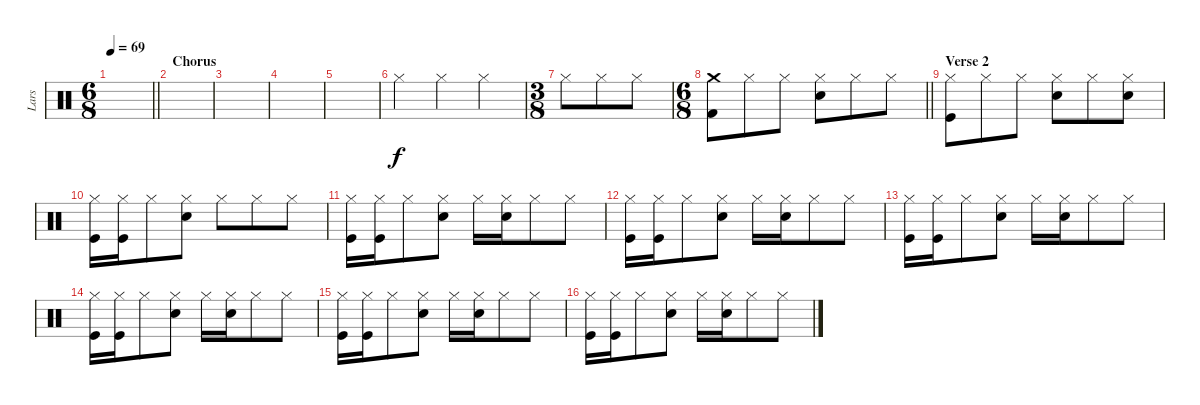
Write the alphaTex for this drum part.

\track ("Lars" "Lars") {instrument percussion}
\staff {score}
\articulation defaults
\ts (6 8)
\tempo 69
\clef neutral
\barLineRight lightlight
\ks c
|
\section ("" "Chorus")
|
|
|
|
"Hi-Hat (closed)".4 "Hi-Hat (closed)".4 "Hi-Hat (closed)".4 |
\ts (3 8)
"Hi-Hat (closed)".8 "Hi-Hat (closed)".8 "Hi-Hat (closed)".8 |
\ts (6 8)
\barLineRight lightlight
("Crash medium (hit)" "Kick (hit) 2").8 "Hi-Hat (closed)".8 "Hi-Hat (closed)".8 ("Hi-Hat (closed)" "Snare (hit) 2").8 "Hi-Hat (closed)".8 "Hi-Hat (closed)".8 |
\section ("" "Verse 2")
("Hi-Hat (closed)" "Kick (hit)").8 "Hi-Hat (closed)".8 "Hi-Hat (closed)".8 ("Hi-Hat (closed)" "Snare (hit) 2").8 "Hi-Hat (closed)".8 ("Hi-Hat (closed)" "Snare (hit) 2").8 |
("Hi-Hat (closed)" "Kick (hit)").16 ("Hi-Hat (closed)" "Kick (hit)").16 "Hi-Hat (closed)".8 ("Hi-Hat (closed)" "Snare (hit) 2").8 "Hi-Hat (closed)".8 "Hi-Hat (closed)".8 "Hi-Hat (closed)".8 |
("Hi-Hat (closed)" "Kick (hit)").16 ("Hi-Hat (closed)" "Kick (hit)").16 "Hi-Hat (closed)".8 ("Hi-Hat (closed)" "Snare (hit) 2").8 "Hi-Hat (closed)".16 ("Hi-Hat (closed)" "Snare (hit) 2").16 "Hi-Hat (closed)".8 "Hi-Hat (closed)".8 |
("Hi-Hat (closed)" "Kick (hit)").16 ("Hi-Hat (closed)" "Kick (hit)").16 "Hi-Hat (closed)".8 ("Hi-Hat (closed)" "Snare (hit) 2").8 "Hi-Hat (closed)".16 ("Hi-Hat (closed)" "Snare (hit) 2").16 "Hi-Hat (closed)".8 "Hi-Hat (closed)".8 |
("Hi-Hat (closed)" "Kick (hit)").16 ("Hi-Hat (closed)" "Kick (hit)").16 "Hi-Hat (closed)".8 ("Hi-Hat (closed)" "Snare (hit) 2").8 "Hi-Hat (closed)".16 ("Hi-Hat (closed)" "Snare (hit) 2").16 "Hi-Hat (closed)".8 "Hi-Hat (closed)".8 |
("Hi-Hat (closed)" "Kick (hit)").16 ("Hi-Hat (closed)" "Kick (hit)").16 "Hi-Hat (closed)".8 ("Hi-Hat (closed)" "Snare (hit) 2").8 "Hi-Hat (closed)".16 ("Hi-Hat (closed)" "Snare (hit) 2").16 "Hi-Hat (closed)".8 "Hi-Hat (closed)".8 |
("Hi-Hat (closed)" "Kick (hit)").16 ("Hi-Hat (closed)" "Kick (hit)").16 "Hi-Hat (closed)".8 ("Hi-Hat (closed)" "Snare (hit) 2").8 "Hi-Hat (closed)".16 ("Hi-Hat (closed)" "Snare (hit) 2").16 "Hi-Hat (closed)".8 "Hi-Hat (closed)".8 |
("Hi-Hat (closed)" "Kick (hit)").16 ("Hi-Hat (closed)" "Kick (hit)").16 "Hi-Hat (closed)".8 ("Hi-Hat (closed)" "Snare (hit) 2").8 "Hi-Hat (closed)".16 ("Hi-Hat (closed)" "Snare (hit) 2").16 "Hi-Hat (closed)".8 "Hi-Hat (closed)".8
